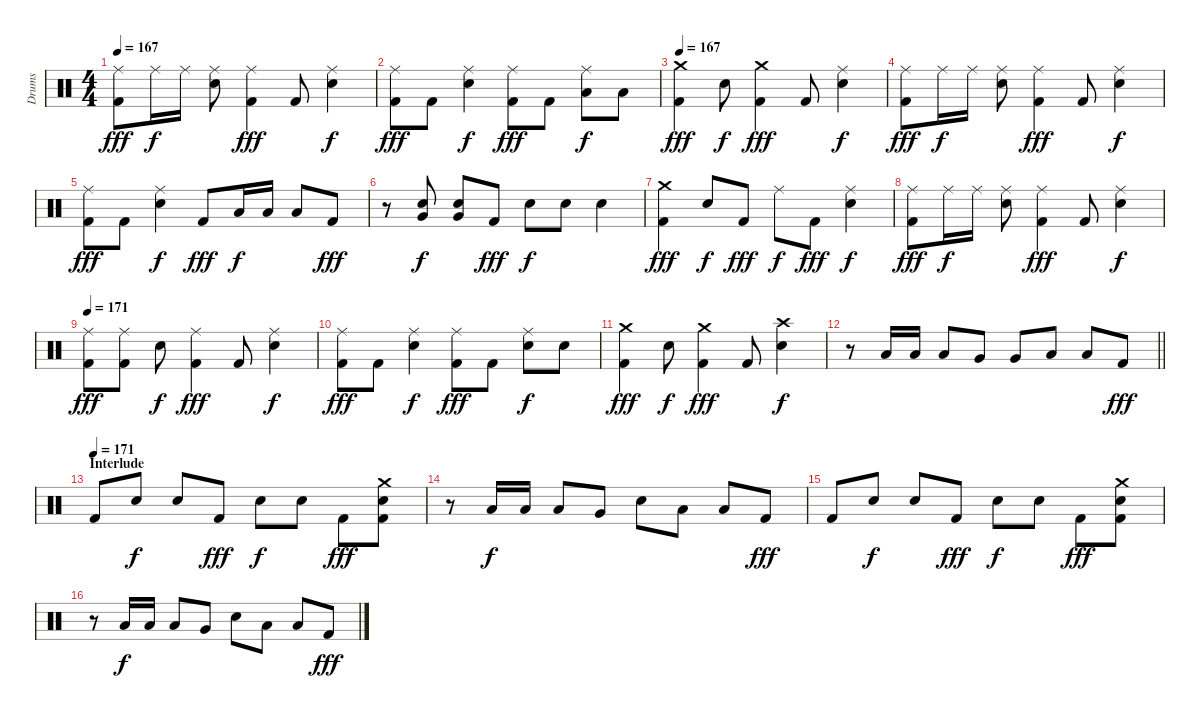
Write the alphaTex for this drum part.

\track ("Drums" "Drums") {instrument percussion}
\staff {score}
\articulation defaults
\ts (4 4)
\tempo 167
\clef neutral
\ks c
("Ride (middle)" "Kick (hit) 2").8{dy fff} "Ride (middle)".16{dy f} "Ride (middle)".16 ("Ride (middle)" "Electric Snare (hit)").8 ("Ride (middle)" "Kick (hit) 2").4{dy fff} "Kick (hit) 2".8 ("Ride (middle)" "Electric Snare (hit)").4{dy f} |
("Ride (middle)" "Kick (hit) 2").8{dy fff} "Kick (hit) 2".8 ("Ride (middle)" "Electric Snare (hit)").4{dy f} ("Ride (middle)" "Kick (hit) 2").8{dy fff} "Kick (hit) 2".8 ("Ride (middle)" "Low Floor Tom (hit)").8{dy f} "Low Floor Tom (hit)".8 |
\tempo 167
("Crash medium (hit)" "Kick (hit) 2").4{dy fff} "Electric Snare (hit)".8{dy f} ("Crash medium (hit)" "Kick (hit) 2").4{dy fff} "Kick (hit) 2".8 ("Ride (middle)" "Electric Snare (hit)").4{dy f} |
("Ride (middle)" "Kick (hit) 2").8{dy fff} "Ride (middle)".16{dy f} "Ride (middle)".16 ("Ride (middle)" "Electric Snare (hit)").8 ("Ride (middle)" "Kick (hit) 2").4{dy fff} "Kick (hit) 2".8 ("Ride (middle)" "Electric Snare (hit)").4{dy f} |
("Ride (middle)" "Kick (hit) 2").8{dy fff} "Kick (hit) 2".8 ("Ride (middle)" "Electric Snare (hit)").4{dy f} "Kick (hit) 2".8{dy fff} "Low Floor Tom (hit)".16{dy f} "Low Floor Tom (hit)".16 "Low Floor Tom (hit)".8 "Kick (hit) 2".8{dy fff} |
r.8 ("Electric Snare (hit)" "Very Low Tom (hit)").8{dy f} ("Electric Snare (hit)" "Very Low Tom (hit)").8 "Kick (hit) 2".8{dy fff} "Electric Snare (hit)".8{dy f} "Electric Snare (hit)".8 "Electric Snare (hit)".4 |
("Crash medium (hit)" "Kick (hit) 2").4{dy fff} "Electric Snare (hit)".8{dy f} "Kick (hit) 2".8{dy fff} "Ride (middle)".8{dy f} "Kick (hit) 2".8{dy fff} ("Ride (middle)" "Electric Snare (hit)").4{dy f} |
("Ride (middle)" "Kick (hit) 2").8{dy fff} "Ride (middle)".16{dy f} "Ride (middle)".16 ("Ride (middle)" "Electric Snare (hit)").8 ("Ride (middle)" "Kick (hit) 2").4{dy fff} "Kick (hit) 2".8 ("Ride (middle)" "Electric Snare (hit)").4{dy f} |
\tempo 171
("Ride (middle)" "Kick (hit) 2").8{dy fff} ("Ride (middle)" "Kick (hit) 2").8 "Electric Snare (hit)".8{dy f} ("Ride (middle)" "Kick (hit) 2").4{dy fff} "Kick (hit) 2".8 ("Ride (middle)" "Electric Snare (hit)").4{dy f} |
("Ride (middle)" "Kick (hit) 2").8{dy fff} "Kick (hit) 2".8 ("Ride (middle)" "Electric Snare (hit)").4{dy f} ("Ride (middle)" "Kick (hit) 2").8{dy fff} "Kick (hit) 2".8 ("Ride (middle)" "Electric Snare (hit)").8{dy f} "Electric Snare (hit)".8 |
("Crash medium (hit)" "Kick (hit) 2").4{dy fff} "Electric Snare (hit)".8{dy f} ("Crash medium (hit)" "Kick (hit) 2").4{dy fff} "Kick (hit) 2".8 ("Crash high (hit)" "Electric Snare (hit)").4{dy f} |
\barLineRight lightlight
r.8 "Low Tom (hit)".16 "Low Tom (hit)".16 "Low Tom (hit)".8 "Very Low Tom (hit)".8 "Very Low Tom (hit)".8 "Low Floor Tom (hit)".8 "Low Floor Tom (hit)".8 "Kick (hit) 2".8{dy fff} |
\section ("" "Interlude")
\tempo (171)
"Kick (hit) 2".8 "Electric Snare (hit)".8{dy f} "Electric Snare (hit)".8 "Kick (hit) 2".8{dy fff} "Electric Snare (hit)".8{dy f} "Electric Snare (hit)".8 "Kick (hit) 2".8{dy fff} ("Crash medium (hit)" "Electric Snare (hit)" "Kick (hit) 2").8 |
r.8 "Low Tom (hit)".16{dy f} "Low Tom (hit)".16 "Low Tom (hit)".8 "Very Low Tom (hit)".8 "Electric Snare (hit)".8 "Low Floor Tom (hit)".8 "Low Floor Tom (hit)".8 "Kick (hit) 2".8{dy fff} |
"Kick (hit) 2".8 "Electric Snare (hit)".8{dy f} "Electric Snare (hit)".8 "Kick (hit) 2".8{dy fff} "Electric Snare (hit)".8{dy f} "Electric Snare (hit)".8 "Kick (hit) 2".8{dy fff} ("Crash medium (hit)" "Electric Snare (hit)" "Kick (hit) 2").8 |
r.8 "Low Tom (hit)".16{dy f} "Low Tom (hit)".16 "Low Tom (hit)".8 "Very Low Tom (hit)".8 "Electric Snare (hit)".8 "Low Floor Tom (hit)".8 "Low Floor Tom (hit)".8 "Kick (hit) 2".8{dy fff}
